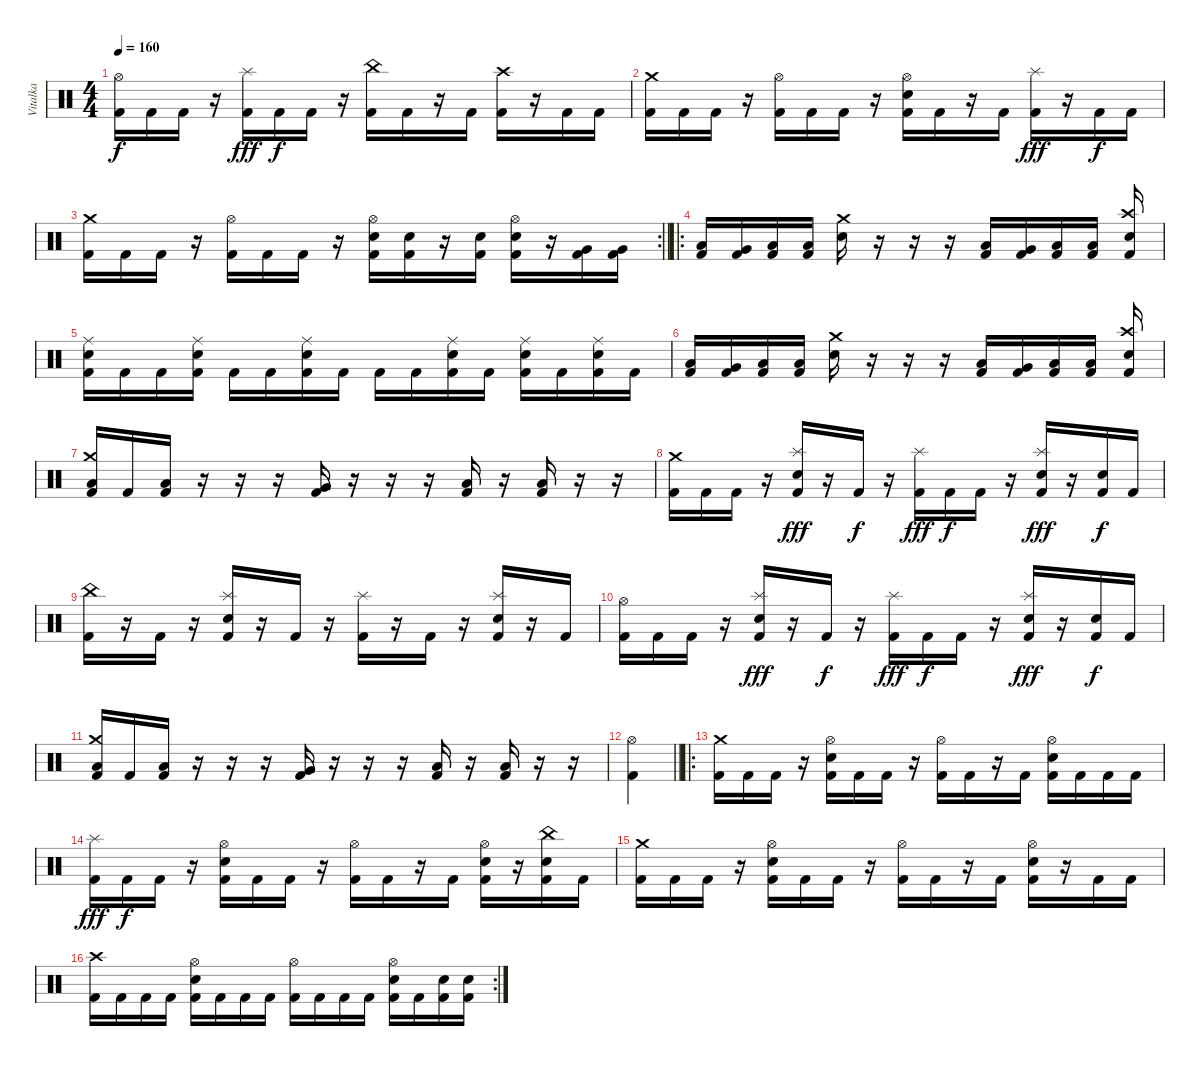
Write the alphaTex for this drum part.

\track ("Vitalka" "Vitalka") {instrument percussion}
\staff {score}
\articulation defaults
\ts (4 4)
\tempo 160
\clef neutral
\ks c
("Hi-Hat (open)" "Kick (hit) 2").16{dy f} "Kick (hit) 2".16 "Kick (hit) 2".16 r.16 ("Splash (hit)" "Kick (hit) 2").16{dy fff} "Kick (hit) 2".16{dy f} "Kick (hit) 2".16 r.16 ("China (hit)" "Kick (hit) 2").16 "Kick (hit) 2".16 r.16 "Kick (hit) 2".16 ("Crash high (hit)" "Kick (hit) 2").16 r.16 "Kick (hit) 2".16 "Kick (hit) 2".16 |
("Crash medium (hit)" "Kick (hit) 2").16 "Kick (hit) 2".16 "Kick (hit) 2".16 r.16 ("Hi-Hat (open)" "Kick (hit) 2").16 "Kick (hit) 2".16 "Kick (hit) 2".16 r.16 ("Hi-Hat (open)" "Snare (hit) 2" "Kick (hit) 2").16 "Kick (hit) 2".16 r.16 "Kick (hit) 2".16 ("Splash (hit)" "Kick (hit) 2").16{dy fff} r.16 "Kick (hit) 2".16{dy f} "Kick (hit) 2".16 |
\rc 2
\barLineRight lightlight
("Crash medium (hit)" "Kick (hit) 2").16 "Kick (hit) 2".16 "Kick (hit) 2".16 r.16 ("Hi-Hat (open)" "Kick (hit) 2").16 "Kick (hit) 2".16 "Kick (hit) 2".16 r.16 ("Hi-Hat (open)" "Snare (hit) 2" "Kick (hit) 2").16 ("Snare (hit) 2" "Kick (hit) 2").16 r.16 ("Snare (hit) 2" "Kick (hit) 2").16 ("Hi-Hat (open)" "Snare (hit) 2" "Kick (hit) 2").16 r.16 ("Very Low Tom (hit)" "Kick (hit) 2").16 ("Very Low Tom (hit)" "Kick (hit) 2").16 |
\ro
("Low Tom (hit)" "Kick (hit) 2").16 ("Very Low Tom (hit)" "Kick (hit) 2").16 ("Low Tom (hit)" "Kick (hit) 2").16 ("Low Floor Tom (hit)" "Kick (hit) 2").16 ("Crash medium (hit)" "Snare (hit) 2").16 r.16 r.16 r.16 ("Low Tom (hit)" "Kick (hit) 2").16 ("Very Low Tom (hit)" "Kick (hit) 2").16 ("Low Tom (hit)" "Kick (hit) 2").16 ("Low Floor Tom (hit)" "Kick (hit) 2").16 ("Crash high (hit)" "Snare (hit) 2" "Kick (hit) 2").16 |
("Ride (middle)" "Snare (hit) 2" "Kick (hit) 2").16 "Kick (hit) 2".16 "Kick (hit) 2".16 ("Ride (middle)" "Snare (hit) 2" "Kick (hit) 2").16 "Kick (hit) 2".16 "Kick (hit) 2".16 ("Ride (middle)" "Snare (hit) 2" "Kick (hit) 2").16 "Kick (hit) 2".16 "Kick (hit) 2".16 "Kick (hit) 2".16 ("Ride (middle)" "Snare (hit) 2" "Kick (hit) 2").16 "Kick (hit) 2".16 ("Ride (middle)" "Snare (hit) 2" "Kick (hit) 2").16 "Kick (hit) 2".16 ("Ride (middle)" "Snare (hit) 2" "Kick (hit) 2").16 "Kick (hit) 2".16 |
("Low Tom (hit)" "Kick (hit) 2").16 ("Very Low Tom (hit)" "Kick (hit) 2").16 ("Low Tom (hit)" "Kick (hit) 2").16 ("Low Floor Tom (hit)" "Kick (hit) 2").16 ("Crash medium (hit)" "Snare (hit) 2").16 r.16 r.16 r.16 ("Low Tom (hit)" "Kick (hit) 2").16 ("Very Low Tom (hit)" "Kick (hit) 2").16 ("Low Tom (hit)" "Kick (hit) 2").16 ("Low Floor Tom (hit)" "Kick (hit) 2").16 ("Crash high (hit)" "Snare (hit) 2" "Kick (hit) 2").16 |
("Crash medium (hit)" "Low Tom (hit)" "Kick (hit) 2").16 "Kick (hit) 2".16 ("Low Tom (hit)" "Kick (hit) 2").16 r.16 r.16 r.16 ("Very Low Tom (hit)" "Kick (hit) 2").16 r.16 r.16 r.16 ("Low Floor Tom (hit)" "Kick (hit) 2").16 r.16 ("Low Floor Tom (hit)" "Kick (hit) 2").16 r.16 r.16 |
("Crash medium (hit)" "Kick (hit) 2").16 "Kick (hit) 2".16 "Kick (hit) 2".16 r.16 ("Splash (hit)" "Snare (hit) 2" "Kick (hit) 2").16{dy fff} r.16 "Kick (hit) 2".16{dy f} r.16 ("Splash (hit)" "Kick (hit) 2").16{dy fff} "Kick (hit) 2".16{dy f} "Kick (hit) 2".16 r.16 ("Splash (hit)" "Snare (hit) 2" "Kick (hit) 2").16{dy fff} r.16 ("Snare (hit) 2" "Kick (hit) 2").16{dy f} "Kick (hit) 2".16 |
("China (hit)" "Kick (hit) 2").16 r.16 "Kick (hit) 2".16 r.16 ("Splash (hit)" "Snare (hit) 2" "Kick (hit) 2").16 r.16 "Kick (hit) 2".16 r.16 ("Splash (hit)" "Kick (hit) 2").16 r.16 "Kick (hit) 2".16 r.16 ("Splash (hit)" "Snare (hit) 2" "Kick (hit) 2").16 r.16 "Kick (hit) 2".16 |
("Hi-Hat (open)" "Kick (hit) 2").16 "Kick (hit) 2".16 "Kick (hit) 2".16 r.16 ("Splash (hit)" "Snare (hit) 2" "Kick (hit) 2").16{dy fff} r.16 "Kick (hit) 2".16{dy f} r.16 ("Splash (hit)" "Kick (hit) 2").16{dy fff} "Kick (hit) 2".16{dy f} "Kick (hit) 2".16 r.16 ("Splash (hit)" "Snare (hit) 2" "Kick (hit) 2").16{dy fff} r.16 ("Snare (hit) 2" "Kick (hit) 2").16{dy f} "Kick (hit) 2".16 |
("Crash medium (hit)" "Low Tom (hit)" "Kick (hit) 2").16 "Kick (hit) 2".16 ("Low Tom (hit)" "Kick (hit) 2").16 r.16 r.16 r.16 ("Very Low Tom (hit)" "Kick (hit) 2").16 r.16 r.16 r.16 ("Low Floor Tom (hit)" "Kick (hit) 2").16 r.16 ("Low Floor Tom (hit)" "Kick (hit) 2").16 r.16 r.16 |
\barLineRight lightlight
("Hi-Hat (open)" "Kick (hit) 2").4 |
\ro
("Crash medium (hit)" "Kick (hit) 2").16 "Kick (hit) 2".16 "Kick (hit) 2".16 r.16 ("Hi-Hat (open)" "Snare (hit) 2" "Kick (hit) 2").16 "Kick (hit) 2".16 "Kick (hit) 2".16 r.16 ("Hi-Hat (open)" "Kick (hit) 2").16 "Kick (hit) 2".16 r.16 "Kick (hit) 2".16 ("Hi-Hat (open)" "Snare (hit) 2" "Kick (hit) 2").16 "Kick (hit) 2".16 "Kick (hit) 2".16 "Kick (hit) 2".16 |
("Splash (hit)" "Kick (hit) 2").16{dy fff} "Kick (hit) 2".16{dy f} "Kick (hit) 2".16 r.16 ("Hi-Hat (open)" "Snare (hit) 2" "Kick (hit) 2").16 "Kick (hit) 2".16 "Kick (hit) 2".16 r.16 ("Hi-Hat (open)" "Kick (hit) 2").16 "Kick (hit) 2".16 r.16 "Kick (hit) 2".16 ("Hi-Hat (open)" "Snare (hit) 2" "Kick (hit) 2").16 r.16 ("China (hit)" "Snare (hit) 2" "Kick (hit) 2").16 "Kick (hit) 2".16 |
("Crash medium (hit)" "Kick (hit) 2").16 "Kick (hit) 2".16 "Kick (hit) 2".16 r.16 ("Hi-Hat (open)" "Snare (hit) 2" "Kick (hit) 2").16 "Kick (hit) 2".16 "Kick (hit) 2".16 r.16 ("Hi-Hat (open)" "Kick (hit) 2").16 "Kick (hit) 2".16 r.16 "Kick (hit) 2".16 ("Hi-Hat (open)" "Snare (hit) 2" "Kick (hit) 2").16 r.16 "Kick (hit) 2".16 "Kick (hit) 2".16 |
\rc 2
("Crash high (hit)" "Kick (hit) 2").16 "Kick (hit) 2".16 "Kick (hit) 2".16 "Kick (hit) 2".16 ("Hi-Hat (open)" "Snare (hit) 2" "Kick (hit) 2").16 "Kick (hit) 2".16 "Kick (hit) 2".16 "Kick (hit) 2".16 ("Hi-Hat (open)" "Kick (hit) 2").16 "Kick (hit) 2".16 "Kick (hit) 2".16 "Kick (hit) 2".16 ("Hi-Hat (open)" "Snare (hit) 2" "Kick (hit) 2").16 "Kick (hit) 2".16 ("Snare (hit) 2" "Kick (hit) 2").16 ("Snare (hit) 2" "Kick (hit) 2").16
